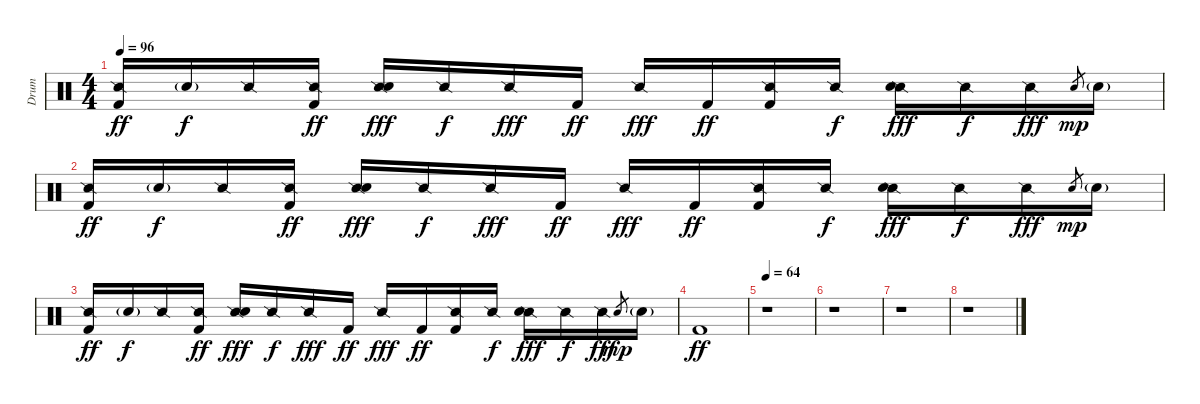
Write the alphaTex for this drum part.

\track ("Drum" "Drum") {instrument percussion}
\staff {score}
\articulation defaults
\ts (4 4)
\tempo 96
\clef neutral
\ks c
("Snare (side stick) 2" "Kick (hit) 2").16{dy ff} "Snare (hit) 2"{g}.16{dy f} "Snare (side stick) 2".16 ("Snare (side stick) 2" "Kick (hit) 2").16{dy ff} ("Snare (side stick) 2" "Snare (hit) 2").16{dy fff} "Snare (side stick) 2".16{dy f} "Snare (side stick) 2".16{dy fff} "Kick (hit) 2".16{dy ff} "Snare (side stick) 2".16{dy fff} "Kick (hit) 2".16{dy ff} ("Snare (side stick) 2" "Kick (hit) 2").16 "Snare (side stick) 2".16{dy f} ("Snare (side stick) 2" "Snare (hit) 2").16{dy fff} "Snare (side stick) 2".16{dy f} "Snare (side stick) 2".16{dy fff} "Snare (hit) 2".8{gr dy mp} "Snare (hit) 2"{g}.16 |
("Snare (side stick) 2" "Kick (hit) 2").16{dy ff} "Snare (hit) 2"{g}.16{dy f} "Snare (side stick) 2".16 ("Snare (side stick) 2" "Kick (hit) 2").16{dy ff} ("Snare (side stick) 2" "Snare (hit) 2").16{dy fff} "Snare (side stick) 2".16{dy f} "Snare (side stick) 2".16{dy fff} "Kick (hit) 2".16{dy ff} "Snare (side stick) 2".16{dy fff} "Kick (hit) 2".16{dy ff} ("Snare (side stick) 2" "Kick (hit) 2").16 "Snare (side stick) 2".16{dy f} ("Snare (side stick) 2" "Snare (hit) 2").16{dy fff} "Snare (side stick) 2".16{dy f} "Snare (side stick) 2".16{dy fff} "Snare (hit) 2".8{gr dy mp} "Snare (hit) 2"{g}.16 |
("Snare (side stick) 2" "Kick (hit) 2").16{dy ff} "Snare (hit) 2"{g}.16{dy f} "Snare (side stick) 2".16 ("Snare (side stick) 2" "Kick (hit) 2").16{dy ff} ("Snare (side stick) 2" "Snare (hit) 2").16{dy fff} "Snare (side stick) 2".16{dy f} "Snare (side stick) 2".16{dy fff} "Kick (hit) 2".16{dy ff} "Snare (side stick) 2".16{dy fff} "Kick (hit) 2".16{dy ff} ("Snare (side stick) 2" "Kick (hit) 2").16 "Snare (side stick) 2".16{dy f} ("Snare (side stick) 2" "Snare (hit) 2").16{dy fff} "Snare (side stick) 2".16{dy f} "Snare (side stick) 2".16{dy fff} "Snare (hit) 2".8{gr dy mp} "Snare (hit) 2"{g}.16 |
"Kick (hit) 2".1{dy ff} |
\tempo 64
r.1 |
r.1 |
r.1 |
r.1
